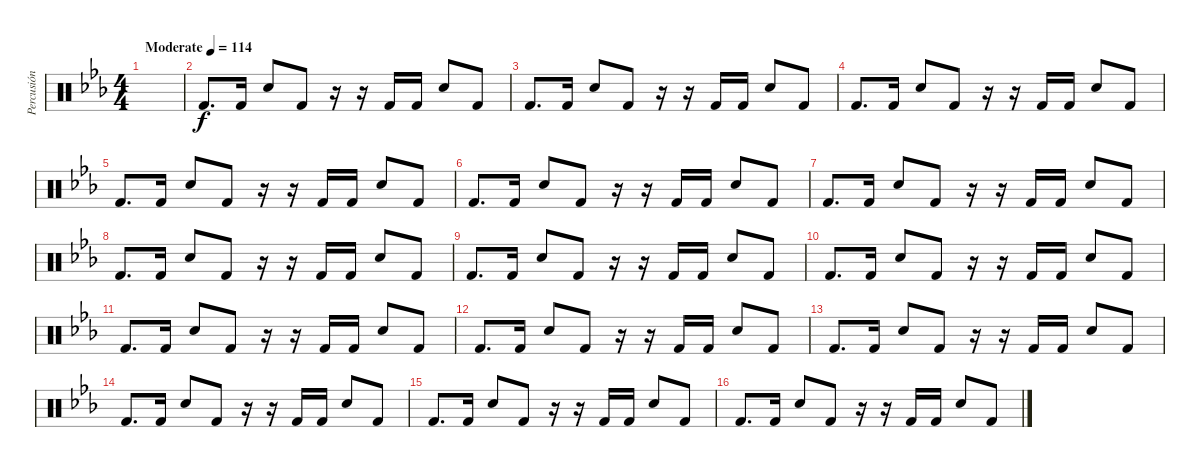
\track ("Percusión" "Percusión") {instrument percussion}
\staff {score}
\articulation defaults
\ts (4 4)
\tempo (114 "Moderate")
\clef neutral
\ks eb
|
"Kick (hit) 2".8{d} "Kick (hit) 2".16 "Electric Snare (hit)".8 "Kick (hit) 2".8 r.16 r.16 "Kick (hit) 2".16 "Kick (hit) 2".16 "Electric Snare (hit)".8 "Kick (hit) 2".8 |
"Kick (hit) 2".8{d} "Kick (hit) 2".16 "Electric Snare (hit)".8 "Kick (hit) 2".8 r.16 r.16 "Kick (hit) 2".16 "Kick (hit) 2".16 "Electric Snare (hit)".8 "Kick (hit) 2".8 |
"Kick (hit) 2".8{d} "Kick (hit) 2".16 "Electric Snare (hit)".8 "Kick (hit) 2".8 r.16 r.16 "Kick (hit) 2".16 "Kick (hit) 2".16 "Electric Snare (hit)".8 "Kick (hit) 2".8 |
"Kick (hit) 2".8{d} "Kick (hit) 2".16 "Electric Snare (hit)".8 "Kick (hit) 2".8 r.16 r.16 "Kick (hit) 2".16 "Kick (hit) 2".16 "Electric Snare (hit)".8 "Kick (hit) 2".8 |
"Kick (hit) 2".8{d} "Kick (hit) 2".16 "Electric Snare (hit)".8 "Kick (hit) 2".8 r.16 r.16 "Kick (hit) 2".16 "Kick (hit) 2".16 "Electric Snare (hit)".8 "Kick (hit) 2".8 |
"Kick (hit) 2".8{d} "Kick (hit) 2".16 "Electric Snare (hit)".8 "Kick (hit) 2".8 r.16 r.16 "Kick (hit) 2".16 "Kick (hit) 2".16 "Electric Snare (hit)".8 "Kick (hit) 2".8 |
"Kick (hit) 2".8{d} "Kick (hit) 2".16 "Electric Snare (hit)".8 "Kick (hit) 2".8 r.16 r.16 "Kick (hit) 2".16 "Kick (hit) 2".16 "Electric Snare (hit)".8 "Kick (hit) 2".8 |
"Kick (hit) 2".8{d} "Kick (hit) 2".16 "Electric Snare (hit)".8 "Kick (hit) 2".8 r.16 r.16 "Kick (hit) 2".16 "Kick (hit) 2".16 "Electric Snare (hit)".8 "Kick (hit) 2".8 |
"Kick (hit) 2".8{d} "Kick (hit) 2".16 "Electric Snare (hit)".8 "Kick (hit) 2".8 r.16 r.16 "Kick (hit) 2".16 "Kick (hit) 2".16 "Electric Snare (hit)".8 "Kick (hit) 2".8 |
"Kick (hit) 2".8{d} "Kick (hit) 2".16 "Electric Snare (hit)".8 "Kick (hit) 2".8 r.16 r.16 "Kick (hit) 2".16 "Kick (hit) 2".16 "Electric Snare (hit)".8 "Kick (hit) 2".8 |
"Kick (hit) 2".8{d} "Kick (hit) 2".16 "Electric Snare (hit)".8 "Kick (hit) 2".8 r.16 r.16 "Kick (hit) 2".16 "Kick (hit) 2".16 "Electric Snare (hit)".8 "Kick (hit) 2".8 |
"Kick (hit) 2".8{d} "Kick (hit) 2".16 "Electric Snare (hit)".8 "Kick (hit) 2".8 r.16 r.16 "Kick (hit) 2".16 "Kick (hit) 2".16 "Electric Snare (hit)".8 "Kick (hit) 2".8 |
"Kick (hit) 2".8{d} "Kick (hit) 2".16 "Electric Snare (hit)".8 "Kick (hit) 2".8 r.16 r.16 "Kick (hit) 2".16 "Kick (hit) 2".16 "Electric Snare (hit)".8 "Kick (hit) 2".8 |
"Kick (hit) 2".8{d} "Kick (hit) 2".16 "Electric Snare (hit)".8 "Kick (hit) 2".8 r.16 r.16 "Kick (hit) 2".16 "Kick (hit) 2".16 "Electric Snare (hit)".8 "Kick (hit) 2".8 |
"Kick (hit) 2".8{d} "Kick (hit) 2".16 "Electric Snare (hit)".8 "Kick (hit) 2".8 r.16 r.16 "Kick (hit) 2".16 "Kick (hit) 2".16 "Electric Snare (hit)".8 "Kick (hit) 2".8
